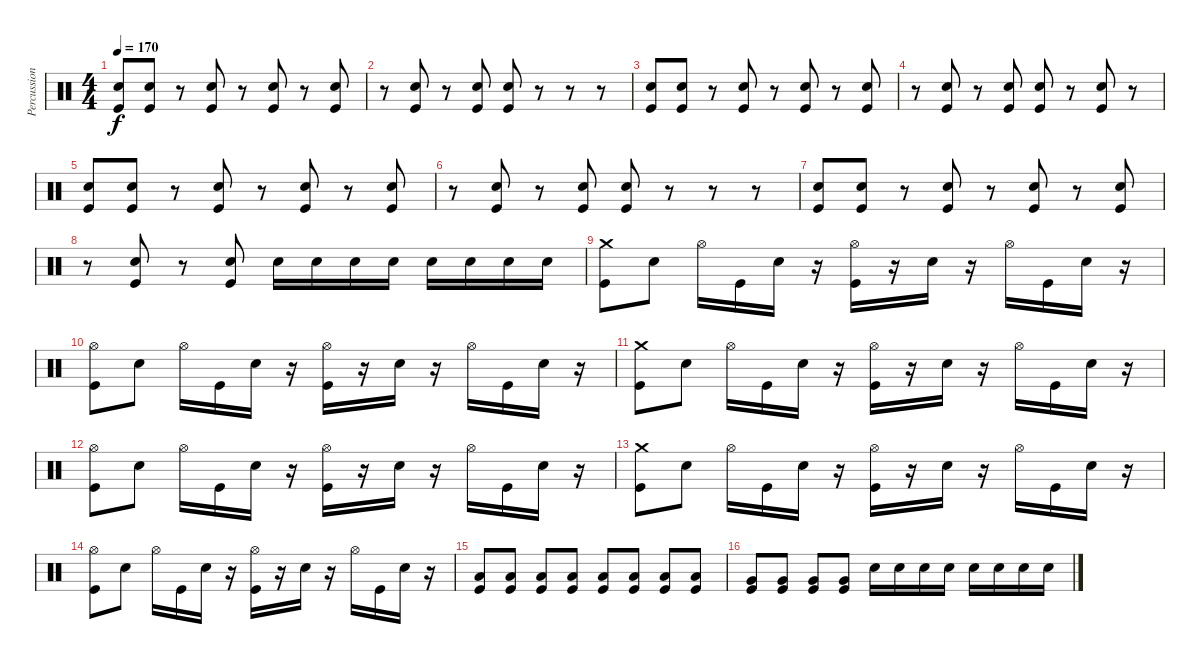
\track ("Percussion [Ron]" "Percussion") {instrument percussion}
\staff {score}
\articulation defaults
\ts (4 4)
\tempo 170
\clef neutral
\ks c
("Snare (hit) 2" "Kick (hit)").8{dy f} ("Snare (hit) 2" "Kick (hit)").8 r.8 ("Snare (hit) 2" "Kick (hit)").8 r.8 ("Snare (hit) 2" "Kick (hit)").8 r.8 ("Snare (hit) 2" "Kick (hit)").8 |
r.8 ("Snare (hit) 2" "Kick (hit)").8 r.8 ("Snare (hit) 2" "Kick (hit)").8 ("Snare (hit) 2" "Kick (hit)").8 r.8 r.8 r.8 |
("Snare (hit) 2" "Kick (hit)").8 ("Snare (hit) 2" "Kick (hit)").8 r.8 ("Snare (hit) 2" "Kick (hit)").8 r.8 ("Snare (hit) 2" "Kick (hit)").8 r.8 ("Snare (hit) 2" "Kick (hit)").8 |
r.8 ("Snare (hit) 2" "Kick (hit)").8 r.8 ("Snare (hit) 2" "Kick (hit)").8 ("Snare (hit) 2" "Kick (hit)").8 r.8 ("Snare (hit) 2" "Kick (hit)").8 r.8 |
("Snare (hit) 2" "Kick (hit)").8 ("Snare (hit) 2" "Kick (hit)").8 r.8 ("Snare (hit) 2" "Kick (hit)").8 r.8 ("Snare (hit) 2" "Kick (hit)").8 r.8 ("Snare (hit) 2" "Kick (hit)").8 |
r.8 ("Snare (hit) 2" "Kick (hit)").8 r.8 ("Snare (hit) 2" "Kick (hit)").8 ("Snare (hit) 2" "Kick (hit)").8 r.8 r.8 r.8 |
("Snare (hit) 2" "Kick (hit)").8 ("Snare (hit) 2" "Kick (hit)").8 r.8 ("Snare (hit) 2" "Kick (hit)").8 r.8 ("Snare (hit) 2" "Kick (hit)").8 r.8 ("Snare (hit) 2" "Kick (hit)").8 |
r.8 ("Snare (hit) 2" "Kick (hit)").8 r.8 ("Snare (hit) 2" "Kick (hit)").8 "Snare (hit) 2".16 "Snare (hit) 2".16 "Snare (hit) 2".16 "Snare (hit) 2".16 "Snare (hit) 2".16 "Snare (hit) 2".16 "Snare (hit) 2".16 "Snare (hit) 2".16 |
("Kick (hit)" "Crash medium (hit)").8 "Snare (hit) 2".8 "Hi-Hat (open)".16 "Kick (hit)".16 "Snare (hit) 2".16 r.16 ("Kick (hit)" "Hi-Hat (open)").16 r.16 "Snare (hit) 2".16 r.16 "Hi-Hat (open)".16 "Kick (hit)".16 "Snare (hit) 2".16 r.16 |
("Kick (hit)" "Hi-Hat (open)").8 "Snare (hit) 2".8 "Hi-Hat (open)".16 "Kick (hit)".16 "Snare (hit) 2".16 r.16 ("Kick (hit)" "Hi-Hat (open)").16 r.16 "Snare (hit) 2".16 r.16 "Hi-Hat (open)".16 "Kick (hit)".16 "Snare (hit) 2".16 r.16 |
("Kick (hit)" "Crash medium (hit)").8 "Snare (hit) 2".8 "Hi-Hat (open)".16 "Kick (hit)".16 "Snare (hit) 2".16 r.16 ("Kick (hit)" "Hi-Hat (open)").16 r.16 "Snare (hit) 2".16 r.16 "Hi-Hat (open)".16 "Kick (hit)".16 "Snare (hit) 2".16 r.16 |
("Kick (hit)" "Hi-Hat (open)").8 "Snare (hit) 2".8 "Hi-Hat (open)".16 "Kick (hit)".16 "Snare (hit) 2".16 r.16 ("Kick (hit)" "Hi-Hat (open)").16 r.16 "Snare (hit) 2".16 r.16 "Hi-Hat (open)".16 "Kick (hit)".16 "Snare (hit) 2".16 r.16 |
("Kick (hit)" "Crash medium (hit)").8 "Snare (hit) 2".8 "Hi-Hat (open)".16 "Kick (hit)".16 "Snare (hit) 2".16 r.16 ("Kick (hit)" "Hi-Hat (open)").16 r.16 "Snare (hit) 2".16 r.16 "Hi-Hat (open)".16 "Kick (hit)".16 "Snare (hit) 2".16 r.16 |
("Kick (hit)" "Hi-Hat (open)").8 "Snare (hit) 2".8 "Hi-Hat (open)".16 "Kick (hit)".16 "Snare (hit) 2".16 r.16 ("Kick (hit)" "Hi-Hat (open)").16 r.16 "Snare (hit) 2".16 r.16 "Hi-Hat (open)".16 "Kick (hit)".16 "Snare (hit) 2".16 r.16 |
("Low Floor Tom (hit)" "Kick (hit)").8 ("Low Floor Tom (hit)" "Kick (hit)").8 ("Low Floor Tom (hit)" "Kick (hit)").8 ("Low Floor Tom (hit)" "Kick (hit)").8 ("Low Floor Tom (hit)" "Kick (hit)").8 ("Low Floor Tom (hit)" "Kick (hit)").8 ("Low Floor Tom (hit)" "Kick (hit)").8 ("Low Floor Tom (hit)" "Kick (hit)").8 |
("Very Low Tom (hit)" "Kick (hit)").8 ("Very Low Tom (hit)" "Kick (hit)").8 ("Very Low Tom (hit)" "Kick (hit)").8 ("Very Low Tom (hit)" "Kick (hit)").8 "Snare (hit) 2".16 "Snare (hit) 2".16 "Snare (hit) 2".16 "Snare (hit) 2".16 "Snare (hit) 2".16 "Snare (hit) 2".16 "Snare (hit) 2".16 "Snare (hit) 2".16
